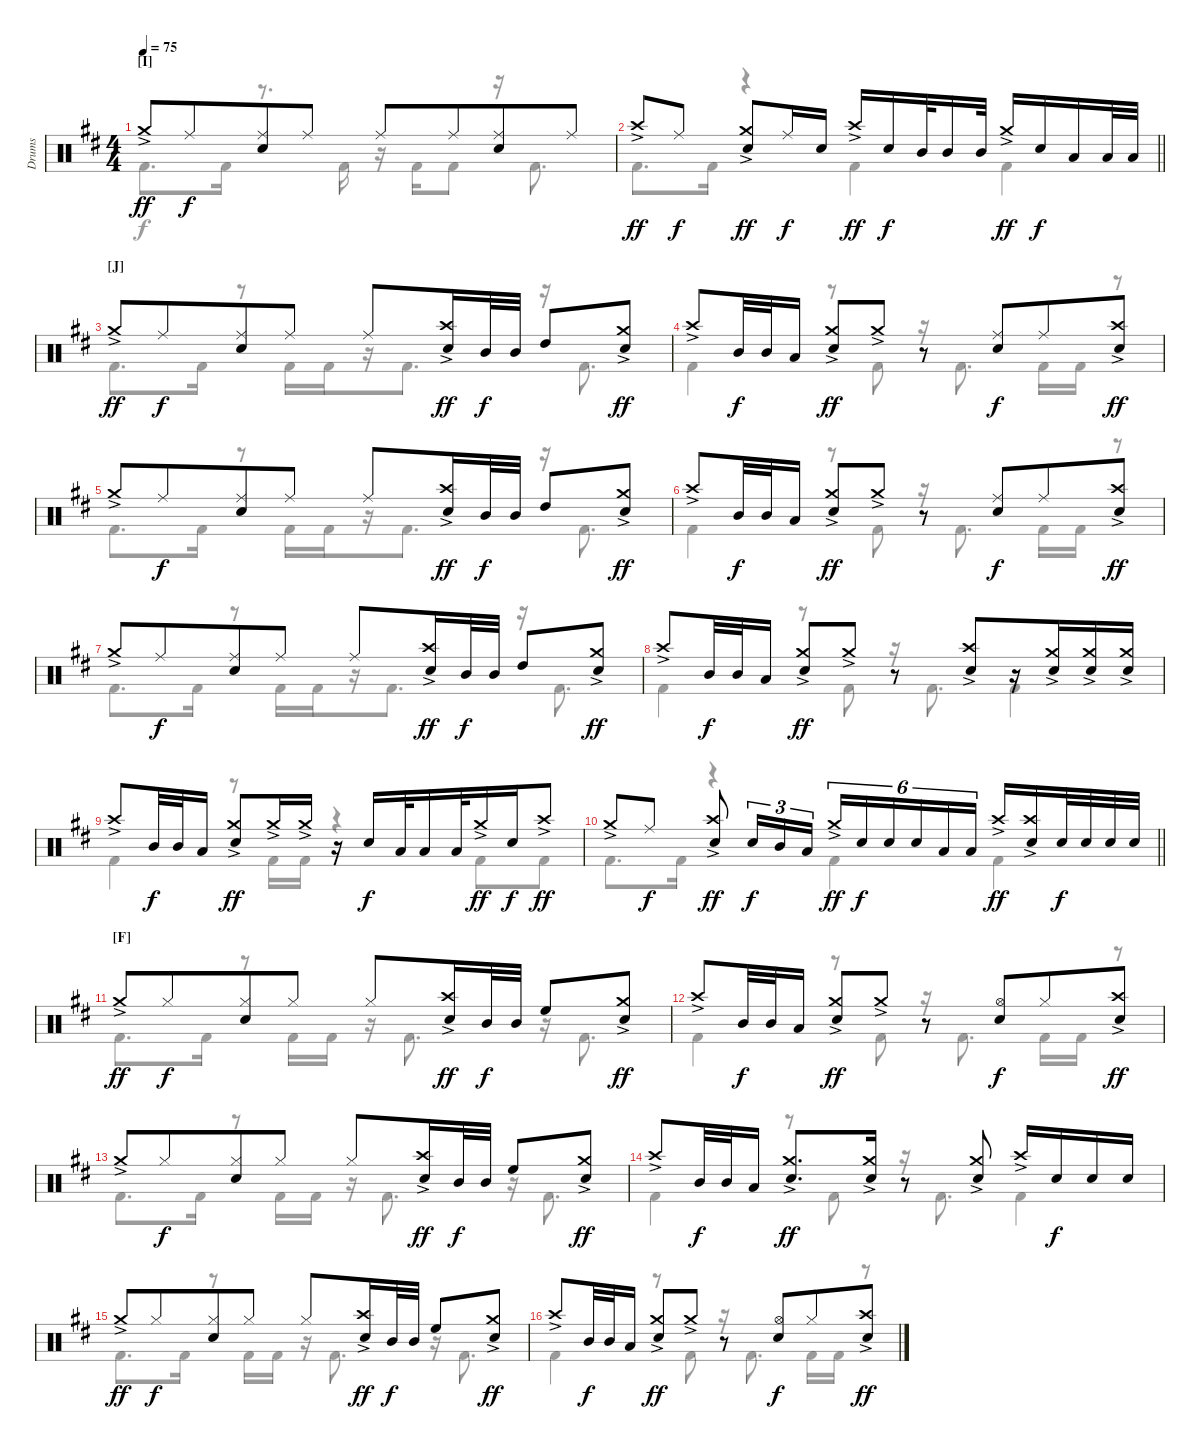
\track ("Drums" "Drums") {instrument percussion}
\staff {score}
\articulation defaults
\voice
\ts (4 4)
\section ("" "[I]")
\tempo 75
\clef neutral
\ks bminor "Crash medium (hit)"{ac}.8{dy ff} "Ride (middle)".8{dy f beam merge}
("Ride (middle)" "Snare (hit) 2").8 "Ride (middle)".8 "Ride (middle)".8 "Ride (middle)".8{beam merge} ("Ride (middle)" "Snare (hit) 2").8 "Ride (middle)".8 |
\barLineRight lightlight "Crash high (hit)"{ac}.8{dy ff} "Ride (middle)".8{dy f}
("Crash medium (hit)"{ac} "Snare (hit) 2").8{dy ff} "Ride (middle)".16{dy f} "Snare (hit) 2".16 "Crash high (hit)"{ac}.16{dy ff} "Snare (hit) 2".16{dy f} "Mid Tom (hit)".32 "Mid Tom (hit)".16 "Mid Tom (hit)".32 "Crash medium (hit)"{ac}.16{dy ff} "Snare (hit) 2".16{dy f} "Low Tom (hit)".16 "Low Tom (hit)".32 "Low Tom (hit)".32 |
\section ("" "[J]")
"Crash medium (hit)"{ac}.8{dy ff} "Ride (middle)".8{dy f beam merge} ("Ride (middle)" "Snare (hit) 2").8 "Ride (middle)".8 "Ride (middle)".8 ("Crash high (hit)"{ac} "Snare (hit) 2").16{dy ff} "Mid Tom (hit)".32{dy f} "Mid Tom (hit)".32 "High Tom (hit)".8 ("Crash medium (hit)"{ac} "Snare (hit) 2").8{dy ff} |
"Crash high (hit)"{ac}.8 "Mid Tom (hit)".32{dy f beam merge} "Mid Tom (hit)".32 "Low Tom (hit)".16 ("Crash medium (hit)"{ac} "Snare (hit) 2").8{dy ff} "Crash medium (hit)"{ac}.8 r.8 ("Ride (middle)" "Snare (hit) 2").8{dy f beam merge} "Ride (middle)".8 ("Crash high (hit)"{ac} "Snare (hit) 2").8{dy ff} |
"Crash medium (hit)"{ac}.8 "Ride (middle)".8{dy f beam merge} ("Ride (middle)" "Snare (hit) 2").8 "Ride (middle)".8 "Ride (middle)".8 ("Crash high (hit)"{ac} "Snare (hit) 2").16{dy ff} "Mid Tom (hit)".32{dy f} "Mid Tom (hit)".32 "High Tom (hit)".8 ("Crash medium (hit)"{ac} "Snare (hit) 2").8{dy ff} |
"Crash high (hit)"{ac}.8 "Mid Tom (hit)".32{dy f beam merge} "Mid Tom (hit)".32 "Low Tom (hit)".16 ("Crash medium (hit)"{ac} "Snare (hit) 2").8{dy ff} "Crash medium (hit)"{ac}.8 r.8 ("Ride (middle)" "Snare (hit) 2").8{dy f beam merge} "Ride (middle)".8 ("Crash high (hit)"{ac} "Snare (hit) 2").8{dy ff} |
"Crash medium (hit)"{ac}.8 "Ride (middle)".8{dy f beam merge} ("Ride (middle)" "Snare (hit) 2").8 "Ride (middle)".8 "Ride (middle)".8 ("Crash high (hit)"{ac} "Snare (hit) 2").16{dy ff} "Mid Tom (hit)".32{dy f} "Mid Tom (hit)".32 "High Tom (hit)".8 ("Crash medium (hit)"{ac} "Snare (hit) 2").8{dy ff} |
"Crash high (hit)"{ac}.8 "Mid Tom (hit)".32{dy f beam merge} "Mid Tom (hit)".32 "Low Tom (hit)".16 ("Crash medium (hit)"{ac} "Snare (hit) 2").8{dy ff} "Crash medium (hit)"{ac}.8 r.8 ("Crash high (hit)"{ac} "Snare (hit) 2").8{beam merge} r.16 ("Crash medium (hit)"{ac} "Snare (hit) 2").16{beam merge} ("Crash medium (hit)"{ac} "Snare (hit) 2").16 ("Crash medium (hit)"{ac} "Snare (hit) 2").16 |
"Crash high (hit)"{ac}.8 "Mid Tom (hit)".32{dy f} "Mid Tom (hit)".32 "Low Tom (hit)".16 ("Crash medium (hit)"{ac} "Snare (hit) 2").8{dy ff} "Crash medium (hit)"{ac}.16 "Crash medium (hit)"{ac}.16 r.16 "Snare (hit) 2".16{dy f beam merge} "Low Tom (hit)".32{beam merge} "Low Tom (hit)".16 "Low Tom (hit)".32{beam merge} "Crash medium (hit)"{ac}.16{dy ff} "Snare (hit) 2".16{dy f} "Crash high (hit)"{ac}.8{dy ff} |
\barLineRight lightlight "Crash medium (hit)"{ac}.8 "Ride (middle)".8{dy f}
("Crash high (hit)"{ac} "Snare (hit) 2").8{dy ff} "Snare (hit) 2".16{tu (3 2) dy f} "Mid Tom (hit)".16{tu (3 2)} "Low Tom (hit)".16{tu (3 2)} "Crash medium (hit)"{ac}.16{tu (6 4) dy ff} "Snare (hit) 2".16{tu (6 4) dy f} "Snare (hit) 2".16{tu (6 4)} "Snare (hit) 2".16{tu (6 4)} "Low Tom (hit)".16{tu (6 4)} "Low Tom (hit)".16{tu (6 4)} "Crash high (hit)"{ac}.16{dy ff} ("Crash high (hit)"{ac} "Snare (hit) 2").16 "Snare (hit) 2".32{dy f beam merge} "Snare (hit) 2".32{beam merge} "Snare (hit) 2".32{beam merge} "Snare (hit) 2".32 |
\section ("" "[F]")
"Crash medium (hit)"{ac}.8{dy ff} "Hi-Hat (closed)".8{dy f beam merge} ("Hi-Hat (closed)" "Snare (hit) 2").8 "Hi-Hat (closed)".8 "Hi-Hat (closed)".8{beam merge} ("Crash high (hit)"{ac} "Snare (hit) 2").16{dy ff} "Mid Tom (hit)".32{dy f} "Mid Tom (hit)".32 "High Floor Tom (hit)".8 ("Crash medium (hit)"{ac} "Snare (hit) 2").8{dy ff} |
"Crash high (hit)"{ac}.8 "Mid Tom (hit)".32{dy f} "Mid Tom (hit)".32 "Low Tom (hit)".16 ("Crash medium (hit)"{ac} "Snare (hit) 2").8{dy ff} "Crash medium (hit)"{ac}.8 r.8 ("Hi-Hat (open)" "Snare (hit) 2").8{dy f beam merge} "Hi-Hat (closed)".8 ("Crash high (hit)"{ac} "Snare (hit) 2").8{dy ff} |
"Crash medium (hit)"{ac}.8 "Hi-Hat (closed)".8{dy f beam merge} ("Hi-Hat (closed)" "Snare (hit) 2").8 "Hi-Hat (closed)".8 "Hi-Hat (closed)".8{beam merge} ("Crash high (hit)"{ac} "Snare (hit) 2").16{dy ff} "Mid Tom (hit)".32{dy f} "Mid Tom (hit)".32 "High Floor Tom (hit)".8 ("Crash medium (hit)"{ac} "Snare (hit) 2").8{dy ff} |
"Crash high (hit)"{ac}.8 "Mid Tom (hit)".32{dy f} "Mid Tom (hit)".32 "Low Tom (hit)".16 ("Crash medium (hit)"{ac} "Snare (hit) 2").8{d dy ff} ("Crash medium (hit)"{ac} "Snare (hit) 2").16 r.8 ("Crash medium (hit)"{ac} "Snare (hit) 2").8 "Crash high (hit)"{ac}.16 "Snare (hit) 2".16{dy f beam merge} "Snare (hit) 2".16{beam merge} "Snare (hit) 2".16 |
"Crash medium (hit)"{ac}.8{dy ff} "Hi-Hat (closed)".8{dy f beam merge} ("Hi-Hat (closed)" "Snare (hit) 2").8 "Hi-Hat (closed)".8 "Hi-Hat (closed)".8{beam merge} ("Crash high (hit)"{ac} "Snare (hit) 2").16{dy ff} "Mid Tom (hit)".32{dy f} "Mid Tom (hit)".32 "High Floor Tom (hit)".8 ("Crash medium (hit)"{ac} "Snare (hit) 2").8{dy ff} |
"Crash high (hit)"{ac}.8 "Mid Tom (hit)".32{dy f} "Mid Tom (hit)".32 "Low Tom (hit)".16 ("Crash medium (hit)"{ac} "Snare (hit) 2").8{dy ff} "Crash medium (hit)"{ac}.8 r.8 ("Hi-Hat (open)" "Snare (hit) 2").8{dy f beam merge} "Hi-Hat (closed)".8 ("Crash high (hit)"{ac} "Snare (hit) 2").8{dy ff}
\voice
\clef neutral
\ottava regular
\simile none
\ks bminor "Kick (hit) 2".8{d dy f} "Kick (hit) 2".16
r.8{d} "Kick (hit) 2".16 r.16 "Kick (hit) 2".16 "Kick (hit) 2".8 r.16 "Kick (hit) 2".8{d} |
\barLineRight lightlight "Kick (hit) 2".8{d} "Kick (hit) 2".16
r.4 "Kick (hit) 2".4 "Kick (hit) 2".4 |
"Kick (hit) 2".8{d} "Kick (hit) 2".16 r.8 "Kick (hit) 2".16 "Kick (hit) 2".16{beam merge} r.16 "Kick (hit) 2".8{d} r.16 "Kick (hit) 2".8{d} |
"Kick (hit) 2".4 r.8 "Kick (hit) 2".8 r.16 "Kick (hit) 2".8{d} "Kick (hit) 2".16 "Kick (hit) 2".16 r.8 |
"Kick (hit) 2".8{d} "Kick (hit) 2".16 r.8 "Kick (hit) 2".16 "Kick (hit) 2".16{beam merge} r.16 "Kick (hit) 2".8{d} r.16 "Kick (hit) 2".8{d} |
"Kick (hit) 2".4 r.8 "Kick (hit) 2".8 r.16 "Kick (hit) 2".8{d} "Kick (hit) 2".16 "Kick (hit) 2".16 r.8 |
"Kick (hit) 2".8{d} "Kick (hit) 2".16 r.8 "Kick (hit) 2".16 "Kick (hit) 2".16{beam merge} r.16 "Kick (hit) 2".8{d} r.16 "Kick (hit) 2".8{d} |
"Kick (hit) 2".4 r.8 "Kick (hit) 2".8 r.16 "Kick (hit) 2".8{d} "Kick (hit) 2".4 |
"Kick (hit) 2".4 r.8 "Kick (hit) 2".16 "Kick (hit) 2".16 r.4 "Kick (hit) 2".8 "Kick (hit) 2".8 |
\barLineRight lightlight "Kick (hit) 2".8{d} "Kick (hit) 2".16
r.4 "Kick (hit) 2".4 "Kick (hit) 2".4 |
"Kick (hit) 2".8{d} "Kick (hit) 2".16 r.8 "Kick (hit) 2".16 "Kick (hit) 2".16 r.16 "Kick (hit) 2".8{d} r.16 "Kick (hit) 2".8{d} |
"Kick (hit) 2".4 r.8 "Kick (hit) 2".8 r.16 "Kick (hit) 2".8{d} "Kick (hit) 2".16 "Kick (hit) 2".16 r.8 |
"Kick (hit) 2".8{d} "Kick (hit) 2".16 r.8 "Kick (hit) 2".16 "Kick (hit) 2".16 r.16 "Kick (hit) 2".8{d} r.16 "Kick (hit) 2".8{d} |
"Kick (hit) 2".4 r.8 "Kick (hit) 2".8 r.16 "Kick (hit) 2".8{d} "Kick (hit) 2".4 |
"Kick (hit) 2".8{d} "Kick (hit) 2".16 r.8 "Kick (hit) 2".16 "Kick (hit) 2".16 r.16 "Kick (hit) 2".8{d} r.16 "Kick (hit) 2".8{d} |
"Kick (hit) 2".4 r.8 "Kick (hit) 2".8 r.16 "Kick (hit) 2".8{d} "Kick (hit) 2".16 "Kick (hit) 2".16 r.8
